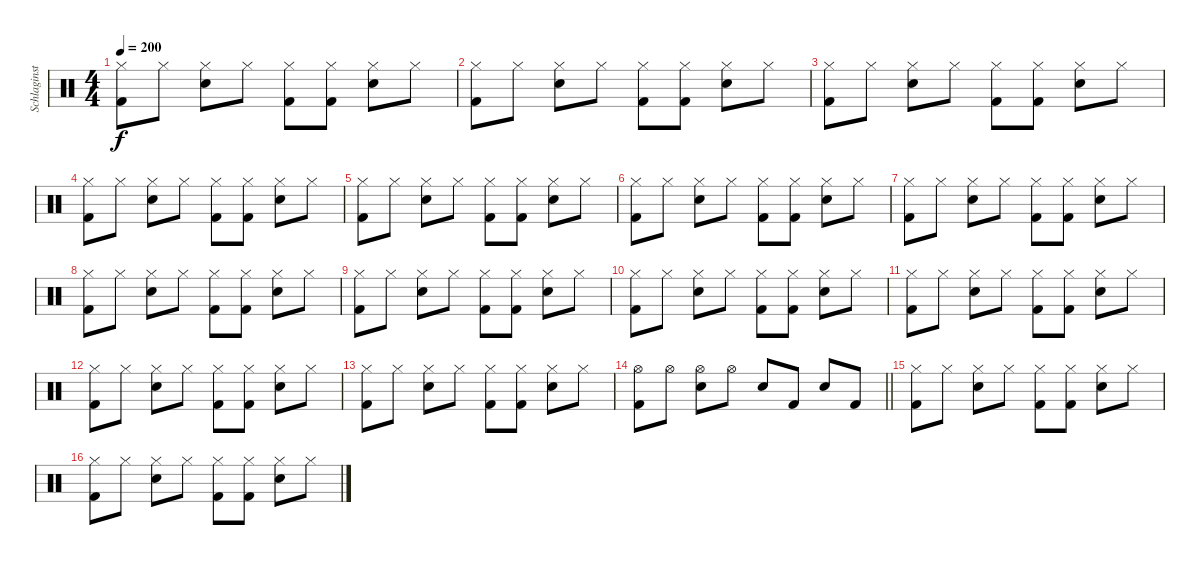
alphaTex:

\track ("Schlaginstrumente - Auswahl" "Schlaginst") {instrument percussion}
\staff {score}
\articulation defaults
\ts (4 4)
\tempo 200
\clef neutral
\ks c
("Hi-Hat (closed)" "Kick (hit) 2").8{dy f} "Hi-Hat (closed)".8 ("Hi-Hat (closed)" "Electric Snare (hit)").8 "Hi-Hat (closed)".8 ("Hi-Hat (closed)" "Kick (hit) 2").8 ("Hi-Hat (closed)" "Kick (hit) 2").8 ("Hi-Hat (closed)" "Electric Snare (hit)").8 "Hi-Hat (closed)".8 |
("Hi-Hat (closed)" "Kick (hit) 2").8 "Hi-Hat (closed)".8 ("Hi-Hat (closed)" "Electric Snare (hit)").8 "Hi-Hat (closed)".8 ("Hi-Hat (closed)" "Kick (hit) 2").8 ("Hi-Hat (closed)" "Kick (hit) 2").8 ("Hi-Hat (closed)" "Electric Snare (hit)").8 "Hi-Hat (closed)".8 |
("Hi-Hat (closed)" "Kick (hit) 2").8 "Hi-Hat (closed)".8 ("Hi-Hat (closed)" "Electric Snare (hit)").8 "Hi-Hat (closed)".8 ("Hi-Hat (closed)" "Kick (hit) 2").8 ("Hi-Hat (closed)" "Kick (hit) 2").8 ("Hi-Hat (closed)" "Electric Snare (hit)").8 "Hi-Hat (closed)".8 |
("Hi-Hat (closed)" "Kick (hit) 2").8 "Hi-Hat (closed)".8 ("Hi-Hat (closed)" "Electric Snare (hit)").8 "Hi-Hat (closed)".8 ("Hi-Hat (closed)" "Kick (hit) 2").8 ("Hi-Hat (closed)" "Kick (hit) 2").8 ("Hi-Hat (closed)" "Electric Snare (hit)").8 "Hi-Hat (closed)".8 |
("Hi-Hat (closed)" "Kick (hit) 2").8 "Hi-Hat (closed)".8 ("Hi-Hat (closed)" "Electric Snare (hit)").8 "Hi-Hat (closed)".8 ("Hi-Hat (closed)" "Kick (hit) 2").8 ("Hi-Hat (closed)" "Kick (hit) 2").8 ("Hi-Hat (closed)" "Electric Snare (hit)").8 "Hi-Hat (closed)".8 |
("Hi-Hat (closed)" "Kick (hit) 2").8 "Hi-Hat (closed)".8 ("Hi-Hat (closed)" "Electric Snare (hit)").8 "Hi-Hat (closed)".8 ("Hi-Hat (closed)" "Kick (hit) 2").8 ("Hi-Hat (closed)" "Kick (hit) 2").8 ("Hi-Hat (closed)" "Electric Snare (hit)").8 "Hi-Hat (closed)".8 |
("Hi-Hat (closed)" "Kick (hit) 2").8 "Hi-Hat (closed)".8 ("Hi-Hat (closed)" "Electric Snare (hit)").8 "Hi-Hat (closed)".8 ("Hi-Hat (closed)" "Kick (hit) 2").8 ("Hi-Hat (closed)" "Kick (hit) 2").8 ("Hi-Hat (closed)" "Electric Snare (hit)").8 "Hi-Hat (closed)".8 |
("Hi-Hat (closed)" "Kick (hit) 2").8 "Hi-Hat (closed)".8 ("Hi-Hat (closed)" "Electric Snare (hit)").8 "Hi-Hat (closed)".8 ("Hi-Hat (closed)" "Kick (hit) 2").8 ("Hi-Hat (closed)" "Kick (hit) 2").8 ("Hi-Hat (closed)" "Electric Snare (hit)").8 "Hi-Hat (closed)".8 |
("Hi-Hat (closed)" "Kick (hit) 2").8 "Hi-Hat (closed)".8 ("Hi-Hat (closed)" "Electric Snare (hit)").8 "Hi-Hat (closed)".8 ("Hi-Hat (closed)" "Kick (hit) 2").8 ("Hi-Hat (closed)" "Kick (hit) 2").8 ("Hi-Hat (closed)" "Electric Snare (hit)").8 "Hi-Hat (closed)".8 |
("Hi-Hat (closed)" "Kick (hit) 2").8 "Hi-Hat (closed)".8 ("Hi-Hat (closed)" "Electric Snare (hit)").8 "Hi-Hat (closed)".8 ("Hi-Hat (closed)" "Kick (hit) 2").8 ("Hi-Hat (closed)" "Kick (hit) 2").8 ("Hi-Hat (closed)" "Electric Snare (hit)").8 "Hi-Hat (closed)".8 |
("Hi-Hat (closed)" "Kick (hit) 2").8 "Hi-Hat (closed)".8 ("Hi-Hat (closed)" "Electric Snare (hit)").8 "Hi-Hat (closed)".8 ("Hi-Hat (closed)" "Kick (hit) 2").8 ("Hi-Hat (closed)" "Kick (hit) 2").8 ("Hi-Hat (closed)" "Electric Snare (hit)").8 "Hi-Hat (closed)".8 |
("Hi-Hat (closed)" "Kick (hit) 2").8 "Hi-Hat (closed)".8 ("Hi-Hat (closed)" "Electric Snare (hit)").8 "Hi-Hat (closed)".8 ("Hi-Hat (closed)" "Kick (hit) 2").8 ("Hi-Hat (closed)" "Kick (hit) 2").8 ("Hi-Hat (closed)" "Electric Snare (hit)").8 "Hi-Hat (closed)".8 |
("Hi-Hat (closed)" "Kick (hit) 2").8 "Hi-Hat (closed)".8 ("Hi-Hat (closed)" "Electric Snare (hit)").8 "Hi-Hat (closed)".8 ("Hi-Hat (closed)" "Kick (hit) 2").8 ("Hi-Hat (closed)" "Kick (hit) 2").8 ("Hi-Hat (closed)" "Electric Snare (hit)").8 "Hi-Hat (closed)".8 |
\barLineRight lightlight
("Hi-Hat (open)" "Kick (hit) 2").8 "Hi-Hat (open)".8 ("Hi-Hat (open)" "Electric Snare (hit)").8 "Hi-Hat (open)".8 "Electric Snare (hit)".8 "Kick (hit) 2".8 "Electric Snare (hit)".8 "Kick (hit) 2".8 |
("Hi-Hat (closed)" "Kick (hit) 2").8 "Hi-Hat (closed)".8 ("Hi-Hat (closed)" "Electric Snare (hit)").8 "Hi-Hat (closed)".8 ("Hi-Hat (closed)" "Kick (hit) 2").8 ("Hi-Hat (closed)" "Kick (hit) 2").8 ("Hi-Hat (closed)" "Electric Snare (hit)").8 "Hi-Hat (closed)".8 |
("Hi-Hat (closed)" "Kick (hit) 2").8 "Hi-Hat (closed)".8 ("Hi-Hat (closed)" "Electric Snare (hit)").8 "Hi-Hat (closed)".8 ("Hi-Hat (closed)" "Kick (hit) 2").8 ("Hi-Hat (closed)" "Kick (hit) 2").8 ("Hi-Hat (closed)" "Electric Snare (hit)").8 "Hi-Hat (closed)".8
